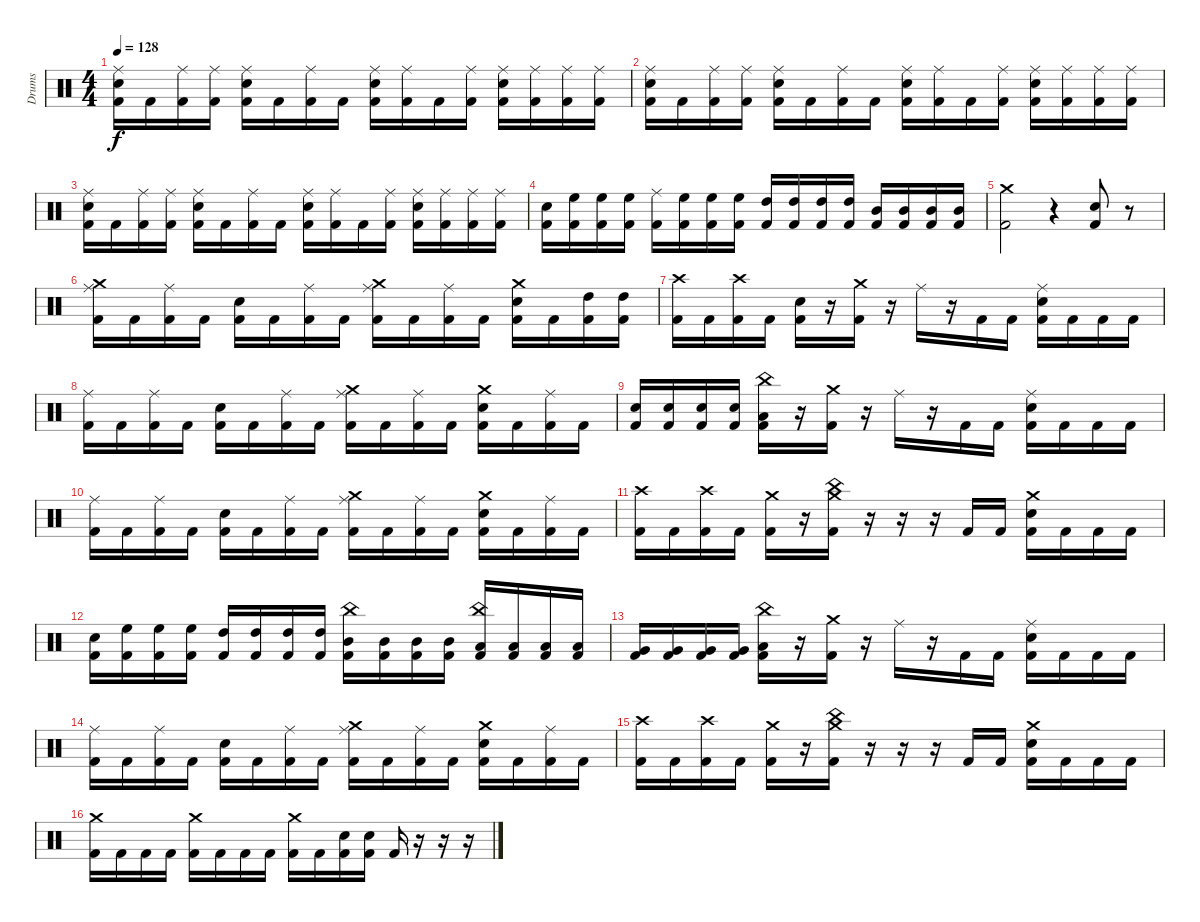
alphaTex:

\track ("Drums" "Drums") {instrument percussion}
\staff {score}
\articulation defaults
\ts (4 4)
\tempo 128
\clef neutral
\ks c
("Ride (middle)" "Snare (hit) 2" "Kick (hit) 2").16{dy f} "Kick (hit) 2".16 ("Ride (middle)" "Kick (hit) 2").16 ("Ride (middle)" "Kick (hit) 2").16 ("Ride (middle)" "Snare (hit) 2" "Kick (hit) 2").16 "Kick (hit) 2".16 ("Ride (middle)" "Kick (hit) 2").16 "Kick (hit) 2".16 ("Ride (middle)" "Snare (hit) 2" "Kick (hit) 2").16 ("Ride (middle)" "Kick (hit) 2").16 "Kick (hit) 2".16 ("Ride (middle)" "Kick (hit) 2").16 ("Ride (middle)" "Snare (hit) 2" "Kick (hit) 2").16 ("Ride (middle)" "Kick (hit) 2").16 ("Ride (middle)" "Kick (hit) 2").16 ("Ride (middle)" "Kick (hit) 2").16 |
("Ride (middle)" "Snare (hit) 2" "Kick (hit) 2").16 "Kick (hit) 2".16 ("Ride (middle)" "Kick (hit) 2").16 ("Ride (middle)" "Kick (hit) 2").16 ("Ride (middle)" "Snare (hit) 2" "Kick (hit) 2").16 "Kick (hit) 2".16 ("Ride (middle)" "Kick (hit) 2").16 "Kick (hit) 2".16 ("Ride (middle)" "Snare (hit) 2" "Kick (hit) 2").16 ("Ride (middle)" "Kick (hit) 2").16 "Kick (hit) 2".16 ("Ride (middle)" "Kick (hit) 2").16 ("Ride (middle)" "Snare (hit) 2" "Kick (hit) 2").16 ("Ride (middle)" "Kick (hit) 2").16 ("Ride (middle)" "Kick (hit) 2").16 ("Ride (middle)" "Kick (hit) 2").16 |
("Ride (middle)" "Snare (hit) 2" "Kick (hit) 2").16 "Kick (hit) 2".16 ("Ride (middle)" "Kick (hit) 2").16 ("Ride (middle)" "Kick (hit) 2").16 ("Ride (middle)" "Snare (hit) 2" "Kick (hit) 2").16 "Kick (hit) 2".16 ("Ride (middle)" "Kick (hit) 2").16 "Kick (hit) 2".16 ("Ride (middle)" "Snare (hit) 2" "Kick (hit) 2").16 ("Ride (middle)" "Kick (hit) 2").16 "Kick (hit) 2".16 ("Ride (middle)" "Kick (hit) 2").16 ("Ride (middle)" "Snare (hit) 2" "Kick (hit) 2").16 ("Ride (middle)" "Kick (hit) 2").16 ("Ride (middle)" "Kick (hit) 2").16 ("Ride (middle)" "Kick (hit) 2").16 |
("Snare (hit) 2" "Kick (hit) 2").16 ("High Floor Tom (hit)" "Kick (hit) 2").16 ("High Floor Tom (hit)" "Kick (hit) 2").16 ("High Floor Tom (hit)" "Kick (hit) 2").16 ("Ride (middle)" "Kick (hit) 2").16 ("High Floor Tom (hit)" "Kick (hit) 2").16 ("High Floor Tom (hit)" "Kick (hit) 2").16 ("High Floor Tom (hit)" "Kick (hit) 2").16 ("High Tom (hit)" "Kick (hit) 2").16 ("High Tom (hit)" "Kick (hit) 2").16 ("High Tom (hit)" "Kick (hit) 2").16 ("High Tom (hit)" "Kick (hit) 2").16 ("Mid Tom (hit)" "Kick (hit) 2").16 ("Mid Tom (hit)" "Kick (hit) 2").16 ("Mid Tom (hit)" "Kick (hit) 2").16 ("Mid Tom (hit)" "Kick (hit) 2").16 |
("Crash medium (hit)" "Kick (hit) 2").2 r.4 ("Snare (hit) 2" "Kick (hit) 2").8 r.8 |
("Crash medium (hit)" "Ride (middle)" "Kick (hit) 2").16 "Kick (hit) 2".16 ("Ride (middle)" "Kick (hit) 2").16 "Kick (hit) 2".16 ("Snare (hit) 2" "Kick (hit) 2").16 "Kick (hit) 2".16 ("Ride (middle)" "Kick (hit) 2").16 "Kick (hit) 2".16 ("Crash medium (hit)" "Ride (middle)" "Kick (hit) 2").16 "Kick (hit) 2".16 ("Ride (middle)" "Kick (hit) 2").16 "Kick (hit) 2".16 ("Crash medium (hit)" "Snare (hit) 2" "Kick (hit) 2").16 "Kick (hit) 2".16 ("High Tom (hit)" "Kick (hit) 2").16 ("High Tom (hit)" "Kick (hit) 2").16 |
("Crash high (hit)" "Kick (hit) 2").16 "Kick (hit) 2".16 ("Crash high (hit)" "Kick (hit) 2").16 "Kick (hit) 2".16 ("Snare (hit) 2" "Kick (hit) 2").16 r.16 ("Crash medium (hit)" "Kick (hit) 2").16 r.16 "Ride (middle)".16 r.16 "Kick (hit) 2".16 "Kick (hit) 2".16 ("Ride (middle)" "Snare (hit) 2" "Kick (hit) 2").16 "Kick (hit) 2".16 "Kick (hit) 2".16 "Kick (hit) 2".16 |
("Ride (middle)" "Kick (hit) 2").16 "Kick (hit) 2".16 ("Ride (middle)" "Kick (hit) 2").16 "Kick (hit) 2".16 ("Snare (hit) 2" "Kick (hit) 2").16 "Kick (hit) 2".16 ("Ride (middle)" "Kick (hit) 2").16 "Kick (hit) 2".16 ("Crash medium (hit)" "Ride (middle)" "Kick (hit) 2").16 "Kick (hit) 2".16 ("Ride (middle)" "Kick (hit) 2").16 "Kick (hit) 2".16 ("Crash medium (hit)" "Snare (hit) 2" "Kick (hit) 2").16 "Kick (hit) 2".16 ("Ride (middle)" "Kick (hit) 2").16 "Kick (hit) 2".16 |
("Snare (hit) 2" "Kick (hit) 2").16 ("Snare (hit) 2" "Kick (hit) 2").16 ("Snare (hit) 2" "Kick (hit) 2").16 ("Snare (hit) 2" "Kick (hit) 2").16 ("China (hit)" "Low Tom (hit)" "Kick (hit) 2").16 r.16 ("Crash medium (hit)" "Kick (hit) 2").16 r.16 "Ride (middle)".16 r.16 "Kick (hit) 2".16 "Kick (hit) 2".16 ("Ride (middle)" "Snare (hit) 2" "Kick (hit) 2").16 "Kick (hit) 2".16 "Kick (hit) 2".16 "Kick (hit) 2".16 |
("Ride (middle)" "Kick (hit) 2").16 "Kick (hit) 2".16 ("Ride (middle)" "Kick (hit) 2").16 "Kick (hit) 2".16 ("Snare (hit) 2" "Kick (hit) 2").16 "Kick (hit) 2".16 ("Ride (middle)" "Kick (hit) 2").16 "Kick (hit) 2".16 ("Crash medium (hit)" "Ride (middle)" "Kick (hit) 2").16 "Kick (hit) 2".16 ("Ride (middle)" "Kick (hit) 2").16 "Kick (hit) 2".16 ("Crash medium (hit)" "Snare (hit) 2" "Kick (hit) 2").16 "Kick (hit) 2".16 ("Ride (middle)" "Kick (hit) 2").16 "Kick (hit) 2".16 |
("Crash high (hit)" "Kick (hit) 2").16 "Kick (hit) 2".16 ("Crash high (hit)" "Kick (hit) 2").16 "Kick (hit) 2".16 ("Crash medium (hit)" "Kick (hit) 2").16 r.16 ("China (hit)" "Crash medium (hit)" "Kick (hit) 2").16 r.16 r.16 r.16 "Kick (hit) 2".16 "Kick (hit) 2".16 ("Crash medium (hit)" "Snare (hit) 2" "Kick (hit) 2").16 "Kick (hit) 2".16 "Kick (hit) 2".16 "Kick (hit) 2".16 |
("Snare (hit) 2" "Kick (hit) 2").16 ("High Floor Tom (hit)" "Kick (hit) 2").16 ("High Floor Tom (hit)" "Kick (hit) 2").16 ("High Floor Tom (hit)" "Kick (hit) 2").16 ("High Tom (hit)" "Kick (hit) 2").16 ("High Tom (hit)" "Kick (hit) 2").16 ("High Tom (hit)" "Kick (hit) 2").16 ("High Tom (hit)" "Kick (hit) 2").16 ("China (hit)" "Mid Tom (hit)" "Kick (hit) 2").16 ("Mid Tom (hit)" "Kick (hit) 2").16 ("Mid Tom (hit)" "Kick (hit) 2").16 ("Mid Tom (hit)" "Kick (hit) 2").16 ("China (hit)" "Low Tom (hit)" "Kick (hit) 2").16 ("Low Tom (hit)" "Kick (hit) 2").16 ("Low Tom (hit)" "Kick (hit) 2").16 ("Low Tom (hit)" "Kick (hit) 2").16 |
("Very Low Tom (hit)" "Kick (hit) 2").16 ("Very Low Tom (hit)" "Kick (hit) 2").16 ("Very Low Tom (hit)" "Kick (hit) 2").16 ("Very Low Tom (hit)" "Kick (hit) 2").16 ("China (hit)" "Low Tom (hit)" "Kick (hit) 2").16 r.16 ("Crash medium (hit)" "Kick (hit) 2").16 r.16 "Ride (middle)".16 r.16 "Kick (hit) 2".16 "Kick (hit) 2".16 ("Ride (middle)" "Snare (hit) 2" "Kick (hit) 2").16 "Kick (hit) 2".16 "Kick (hit) 2".16 "Kick (hit) 2".16 |
("Ride (middle)" "Kick (hit) 2").16 "Kick (hit) 2".16 ("Ride (middle)" "Kick (hit) 2").16 "Kick (hit) 2".16 ("Snare (hit) 2" "Kick (hit) 2").16 "Kick (hit) 2".16 ("Ride (middle)" "Kick (hit) 2").16 "Kick (hit) 2".16 ("Crash medium (hit)" "Ride (middle)" "Kick (hit) 2").16 "Kick (hit) 2".16 ("Ride (middle)" "Kick (hit) 2").16 "Kick (hit) 2".16 ("Crash medium (hit)" "Snare (hit) 2" "Kick (hit) 2").16 "Kick (hit) 2".16 ("Ride (middle)" "Kick (hit) 2").16 "Kick (hit) 2".16 |
("Crash high (hit)" "Kick (hit) 2").16 "Kick (hit) 2".16 ("Crash high (hit)" "Kick (hit) 2").16 "Kick (hit) 2".16 ("Crash medium (hit)" "Kick (hit) 2").16 r.16 ("China (hit)" "Crash medium (hit)" "Kick (hit) 2").16 r.16 r.16 r.16 "Kick (hit) 2".16 "Kick (hit) 2".16 ("Crash medium (hit)" "Snare (hit) 2" "Kick (hit) 2").16 "Kick (hit) 2".16 "Kick (hit) 2".16 "Kick (hit) 2".16 |
("Crash medium (hit)" "Kick (hit) 2").16 "Kick (hit) 2".16 "Kick (hit) 2".16 "Kick (hit) 2".16 ("Crash medium (hit)" "Kick (hit) 2").16 "Kick (hit) 2".16 "Kick (hit) 2".16 "Kick (hit) 2".16 ("Crash medium (hit)" "Kick (hit) 2").16 "Kick (hit) 2".16 ("Snare (hit) 2" "Kick (hit) 2").16 ("Snare (hit) 2" "Kick (hit) 2").16 "Kick (hit) 2".16 r.16 r.16 r.16
